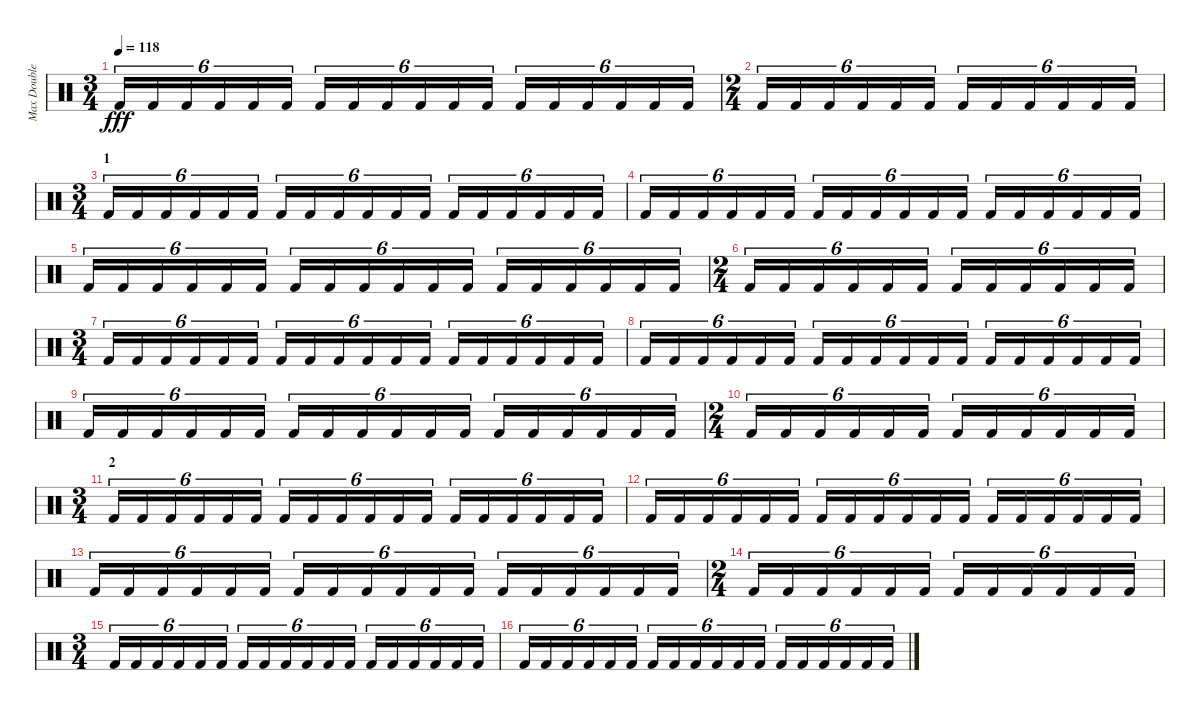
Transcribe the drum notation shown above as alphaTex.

\track ("Max Double Pedal" "Max Double") {instrument percussion}
\staff {score}
\articulation defaults
\ts (3 4)
\tempo 118
\clef neutral
\ks c "Kick (hit) 2".16{tu (6 4) dy fff} "Kick (hit) 2".16{tu (6 4)} "Kick (hit) 2".16{tu (6 4)} "Kick (hit) 2".16{tu (6 4)} "Kick (hit) 2".16{tu (6 4)} "Kick (hit) 2".16{tu (6 4)} "Kick (hit) 2".16{tu (6 4)} "Kick (hit) 2".16{tu (6 4)} "Kick (hit) 2".16{tu (6 4)} "Kick (hit) 2".16{tu (6 4)} "Kick (hit) 2".16{tu (6 4)} "Kick (hit) 2".16{tu (6 4)} "Kick (hit) 2".16{tu (6 4)} "Kick (hit) 2".16{tu (6 4)} "Kick (hit) 2".16{tu (6 4)} "Kick (hit) 2".16{tu (6 4)} "Kick (hit) 2".16{tu (6 4)} "Kick (hit) 2".16{tu (6 4)}
|
\ts (2 4)
"Kick (hit) 2".16{tu (6 4)} "Kick (hit) 2".16{tu (6 4)} "Kick (hit) 2".16{tu (6 4)} "Kick (hit) 2".16{tu (6 4)} "Kick (hit) 2".16{tu (6 4)} "Kick (hit) 2".16{tu (6 4)} "Kick (hit) 2".16{tu (6 4)} "Kick (hit) 2".16{tu (6 4)} "Kick (hit) 2".16{tu (6 4)} "Kick (hit) 2".16{tu (6 4)} "Kick (hit) 2".16{tu (6 4)} "Kick (hit) 2".16{tu (6 4)} |
\ts (3 4)
\section ("" "1")
"Kick (hit) 2".16{tu (6 4)} "Kick (hit) 2".16{tu (6 4)} "Kick (hit) 2".16{tu (6 4)} "Kick (hit) 2".16{tu (6 4)} "Kick (hit) 2".16{tu (6 4)} "Kick (hit) 2".16{tu (6 4)} "Kick (hit) 2".16{tu (6 4)} "Kick (hit) 2".16{tu (6 4)} "Kick (hit) 2".16{tu (6 4)} "Kick (hit) 2".16{tu (6 4)} "Kick (hit) 2".16{tu (6 4)} "Kick (hit) 2".16{tu (6 4)} "Kick (hit) 2".16{tu (6 4)} "Kick (hit) 2".16{tu (6 4)} "Kick (hit) 2".16{tu (6 4)} "Kick (hit) 2".16{tu (6 4)} "Kick (hit) 2".16{tu (6 4)} "Kick (hit) 2".16{tu (6 4)} |
"Kick (hit) 2".16{tu (6 4)} "Kick (hit) 2".16{tu (6 4)} "Kick (hit) 2".16{tu (6 4)} "Kick (hit) 2".16{tu (6 4)} "Kick (hit) 2".16{tu (6 4)} "Kick (hit) 2".16{tu (6 4)} "Kick (hit) 2".16{tu (6 4)} "Kick (hit) 2".16{tu (6 4)} "Kick (hit) 2".16{tu (6 4)} "Kick (hit) 2".16{tu (6 4)} "Kick (hit) 2".16{tu (6 4)} "Kick (hit) 2".16{tu (6 4)} "Kick (hit) 2".16{tu (6 4)} "Kick (hit) 2".16{tu (6 4)} "Kick (hit) 2".16{tu (6 4)} "Kick (hit) 2".16{tu (6 4)} "Kick (hit) 2".16{tu (6 4)} "Kick (hit) 2".16{tu (6 4)} |
"Kick (hit) 2".16{tu (6 4)} "Kick (hit) 2".16{tu (6 4)} "Kick (hit) 2".16{tu (6 4)} "Kick (hit) 2".16{tu (6 4)} "Kick (hit) 2".16{tu (6 4)} "Kick (hit) 2".16{tu (6 4)} "Kick (hit) 2".16{tu (6 4)} "Kick (hit) 2".16{tu (6 4)} "Kick (hit) 2".16{tu (6 4)} "Kick (hit) 2".16{tu (6 4)} "Kick (hit) 2".16{tu (6 4)} "Kick (hit) 2".16{tu (6 4)} "Kick (hit) 2".16{tu (6 4)} "Kick (hit) 2".16{tu (6 4)} "Kick (hit) 2".16{tu (6 4)} "Kick (hit) 2".16{tu (6 4)} "Kick (hit) 2".16{tu (6 4)} "Kick (hit) 2".16{tu (6 4)} |
\ts (2 4)
"Kick (hit) 2".16{tu (6 4)} "Kick (hit) 2".16{tu (6 4)} "Kick (hit) 2".16{tu (6 4)} "Kick (hit) 2".16{tu (6 4)} "Kick (hit) 2".16{tu (6 4)} "Kick (hit) 2".16{tu (6 4)} "Kick (hit) 2".16{tu (6 4)} "Kick (hit) 2".16{tu (6 4)} "Kick (hit) 2".16{tu (6 4)} "Kick (hit) 2".16{tu (6 4)} "Kick (hit) 2".16{tu (6 4)} "Kick (hit) 2".16{tu (6 4)} |
\ts (3 4)
"Kick (hit) 2".16{tu (6 4)} "Kick (hit) 2".16{tu (6 4)} "Kick (hit) 2".16{tu (6 4)} "Kick (hit) 2".16{tu (6 4)} "Kick (hit) 2".16{tu (6 4)} "Kick (hit) 2".16{tu (6 4)} "Kick (hit) 2".16{tu (6 4)} "Kick (hit) 2".16{tu (6 4)} "Kick (hit) 2".16{tu (6 4)} "Kick (hit) 2".16{tu (6 4)} "Kick (hit) 2".16{tu (6 4)} "Kick (hit) 2".16{tu (6 4)} "Kick (hit) 2".16{tu (6 4)} "Kick (hit) 2".16{tu (6 4)} "Kick (hit) 2".16{tu (6 4)} "Kick (hit) 2".16{tu (6 4)} "Kick (hit) 2".16{tu (6 4)} "Kick (hit) 2".16{tu (6 4)} |
"Kick (hit) 2".16{tu (6 4)} "Kick (hit) 2".16{tu (6 4)} "Kick (hit) 2".16{tu (6 4)} "Kick (hit) 2".16{tu (6 4)} "Kick (hit) 2".16{tu (6 4)} "Kick (hit) 2".16{tu (6 4)} "Kick (hit) 2".16{tu (6 4)} "Kick (hit) 2".16{tu (6 4)} "Kick (hit) 2".16{tu (6 4)} "Kick (hit) 2".16{tu (6 4)} "Kick (hit) 2".16{tu (6 4)} "Kick (hit) 2".16{tu (6 4)} "Kick (hit) 2".16{tu (6 4)} "Kick (hit) 2".16{tu (6 4)} "Kick (hit) 2".16{tu (6 4)} "Kick (hit) 2".16{tu (6 4)} "Kick (hit) 2".16{tu (6 4)} "Kick (hit) 2".16{tu (6 4)} |
"Kick (hit) 2".16{tu (6 4)} "Kick (hit) 2".16{tu (6 4)} "Kick (hit) 2".16{tu (6 4)} "Kick (hit) 2".16{tu (6 4)} "Kick (hit) 2".16{tu (6 4)} "Kick (hit) 2".16{tu (6 4)} "Kick (hit) 2".16{tu (6 4)} "Kick (hit) 2".16{tu (6 4)} "Kick (hit) 2".16{tu (6 4)} "Kick (hit) 2".16{tu (6 4)} "Kick (hit) 2".16{tu (6 4)} "Kick (hit) 2".16{tu (6 4)} "Kick (hit) 2".16{tu (6 4)} "Kick (hit) 2".16{tu (6 4)} "Kick (hit) 2".16{tu (6 4)} "Kick (hit) 2".16{tu (6 4)} "Kick (hit) 2".16{tu (6 4)} "Kick (hit) 2".16{tu (6 4)} |
\ts (2 4)
"Kick (hit) 2".16{tu (6 4)} "Kick (hit) 2".16{tu (6 4)} "Kick (hit) 2".16{tu (6 4)} "Kick (hit) 2".16{tu (6 4)} "Kick (hit) 2".16{tu (6 4)} "Kick (hit) 2".16{tu (6 4)} "Kick (hit) 2".16{tu (6 4)} "Kick (hit) 2".16{tu (6 4)} "Kick (hit) 2".16{tu (6 4)} "Kick (hit) 2".16{tu (6 4)} "Kick (hit) 2".16{tu (6 4)} "Kick (hit) 2".16{tu (6 4)} |
\ts (3 4)
\section ("" "2")
"Kick (hit) 2".16{tu (6 4)} "Kick (hit) 2".16{tu (6 4)} "Kick (hit) 2".16{tu (6 4)} "Kick (hit) 2".16{tu (6 4)} "Kick (hit) 2".16{tu (6 4)} "Kick (hit) 2".16{tu (6 4)} "Kick (hit) 2".16{tu (6 4)} "Kick (hit) 2".16{tu (6 4)} "Kick (hit) 2".16{tu (6 4)} "Kick (hit) 2".16{tu (6 4)} "Kick (hit) 2".16{tu (6 4)} "Kick (hit) 2".16{tu (6 4)} "Kick (hit) 2".16{tu (6 4)} "Kick (hit) 2".16{tu (6 4)} "Kick (hit) 2".16{tu (6 4)} "Kick (hit) 2".16{tu (6 4)} "Kick (hit) 2".16{tu (6 4)} "Kick (hit) 2".16{tu (6 4)} |
"Kick (hit) 2".16{tu (6 4)} "Kick (hit) 2".16{tu (6 4)} "Kick (hit) 2".16{tu (6 4)} "Kick (hit) 2".16{tu (6 4)} "Kick (hit) 2".16{tu (6 4)} "Kick (hit) 2".16{tu (6 4)} "Kick (hit) 2".16{tu (6 4)} "Kick (hit) 2".16{tu (6 4)} "Kick (hit) 2".16{tu (6 4)} "Kick (hit) 2".16{tu (6 4)} "Kick (hit) 2".16{tu (6 4)} "Kick (hit) 2".16{tu (6 4)} "Kick (hit) 2".16{tu (6 4)} "Kick (hit) 2".16{tu (6 4)} "Kick (hit) 2".16{tu (6 4)} "Kick (hit) 2".16{tu (6 4)} "Kick (hit) 2".16{tu (6 4)} "Kick (hit) 2".16{tu (6 4)} |
"Kick (hit) 2".16{tu (6 4)} "Kick (hit) 2".16{tu (6 4)} "Kick (hit) 2".16{tu (6 4)} "Kick (hit) 2".16{tu (6 4)} "Kick (hit) 2".16{tu (6 4)} "Kick (hit) 2".16{tu (6 4)} "Kick (hit) 2".16{tu (6 4)} "Kick (hit) 2".16{tu (6 4)} "Kick (hit) 2".16{tu (6 4)} "Kick (hit) 2".16{tu (6 4)} "Kick (hit) 2".16{tu (6 4)} "Kick (hit) 2".16{tu (6 4)} "Kick (hit) 2".16{tu (6 4)} "Kick (hit) 2".16{tu (6 4)} "Kick (hit) 2".16{tu (6 4)} "Kick (hit) 2".16{tu (6 4)} "Kick (hit) 2".16{tu (6 4)} "Kick (hit) 2".16{tu (6 4)} |
\ts (2 4)
"Kick (hit) 2".16{tu (6 4)} "Kick (hit) 2".16{tu (6 4)} "Kick (hit) 2".16{tu (6 4)} "Kick (hit) 2".16{tu (6 4)} "Kick (hit) 2".16{tu (6 4)} "Kick (hit) 2".16{tu (6 4)} "Kick (hit) 2".16{tu (6 4)} "Kick (hit) 2".16{tu (6 4)} "Kick (hit) 2".16{tu (6 4)} "Kick (hit) 2".16{tu (6 4)} "Kick (hit) 2".16{tu (6 4)} "Kick (hit) 2".16{tu (6 4)} |
\ts (3 4)
"Kick (hit) 2".16{tu (6 4)} "Kick (hit) 2".16{tu (6 4)} "Kick (hit) 2".16{tu (6 4)} "Kick (hit) 2".16{tu (6 4)} "Kick (hit) 2".16{tu (6 4)} "Kick (hit) 2".16{tu (6 4)} "Kick (hit) 2".16{tu (6 4)} "Kick (hit) 2".16{tu (6 4)} "Kick (hit) 2".16{tu (6 4)} "Kick (hit) 2".16{tu (6 4)} "Kick (hit) 2".16{tu (6 4)} "Kick (hit) 2".16{tu (6 4)} "Kick (hit) 2".16{tu (6 4)} "Kick (hit) 2".16{tu (6 4)} "Kick (hit) 2".16{tu (6 4)} "Kick (hit) 2".16{tu (6 4)} "Kick (hit) 2".16{tu (6 4)} "Kick (hit) 2".16{tu (6 4)} |
"Kick (hit) 2".16{tu (6 4)} "Kick (hit) 2".16{tu (6 4)} "Kick (hit) 2".16{tu (6 4)} "Kick (hit) 2".16{tu (6 4)} "Kick (hit) 2".16{tu (6 4)} "Kick (hit) 2".16{tu (6 4)} "Kick (hit) 2".16{tu (6 4)} "Kick (hit) 2".16{tu (6 4)} "Kick (hit) 2".16{tu (6 4)} "Kick (hit) 2".16{tu (6 4)} "Kick (hit) 2".16{tu (6 4)} "Kick (hit) 2".16{tu (6 4)} "Kick (hit) 2".16{tu (6 4)} "Kick (hit) 2".16{tu (6 4)} "Kick (hit) 2".16{tu (6 4)} "Kick (hit) 2".16{tu (6 4)} "Kick (hit) 2".16{tu (6 4)} "Kick (hit) 2".16{tu (6 4)}
